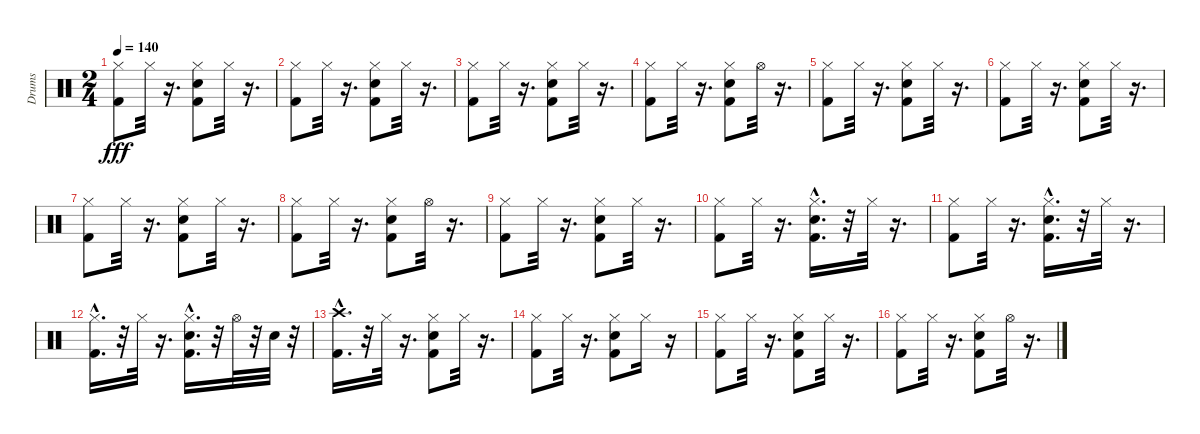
\track ("Drums" "Drums") {instrument percussion}
\staff {score}
\articulation defaults
\ts (2 4)
\tempo 140
\clef neutral
\ks c
("Kick (hit) 2" "Hi-Hat (closed)").8{dy fff} "Hi-Hat (closed)".32 r.16{d} ("Kick (hit) 2" "Hi-Hat (closed)" "Snare (hit) 2").8 "Hi-Hat (closed)".32 r.16{d} |
("Kick (hit) 2" "Hi-Hat (closed)").8 "Hi-Hat (closed)".32 r.16{d} ("Snare (hit) 2" "Kick (hit) 2" "Hi-Hat (closed)").8 "Hi-Hat (closed)".32 r.16{d} |
("Kick (hit) 2" "Hi-Hat (closed)").8 "Hi-Hat (closed)".32 r.16{d} ("Snare (hit) 2" "Kick (hit) 2" "Hi-Hat (closed)").8 "Hi-Hat (closed)".32 r.16{d} |
("Kick (hit) 2" "Hi-Hat (closed)").8 "Hi-Hat (closed)".32 r.16{d} ("Kick (hit) 2" "Hi-Hat (closed)" "Snare (hit) 2").8 "Hi-Hat (open)".32 r.16{d} |
("Kick (hit) 2" "Hi-Hat (closed)").8 "Hi-Hat (closed)".32 r.16{d} ("Snare (hit) 2" "Kick (hit) 2" "Hi-Hat (closed)").8 "Hi-Hat (closed)".32 r.16{d} |
("Kick (hit) 2" "Hi-Hat (closed)").8 "Hi-Hat (closed)".32 r.16{d} ("Snare (hit) 2" "Kick (hit) 2" "Hi-Hat (closed)").8 "Hi-Hat (closed)".32 r.16{d} |
("Kick (hit) 2" "Hi-Hat (closed)").8 "Hi-Hat (closed)".32 r.16{d} ("Kick (hit) 2" "Hi-Hat (closed)" "Snare (hit) 2").8 "Hi-Hat (closed)".32 r.16{d} |
("Kick (hit) 2" "Hi-Hat (closed)").8 "Hi-Hat (closed)".32 r.16{d} ("Snare (hit) 2" "Kick (hit) 2" "Hi-Hat (closed)").8 "Hi-Hat (open)".32 r.16{d} |
("Kick (hit) 2" "Hi-Hat (closed)").8 "Hi-Hat (closed)".32 r.16{d} ("Snare (hit) 2" "Kick (hit) 2" "Hi-Hat (closed)").8 "Hi-Hat (closed)".32 r.16{d} |
("Kick (hit) 2" "Hi-Hat (closed)").8 "Hi-Hat (closed)".32 r.16{d} ("Snare (hit) 2"{hac} "Kick (hit) 2"{hac} "Hi-Hat (closed)").16{d} r.32 "Hi-Hat (closed)".32 r.16{d} |
("Kick (hit) 2" "Hi-Hat (closed)").8 "Hi-Hat (closed)".32 r.16{d} ("Hi-Hat (closed)" "Snare (hit) 2"{hac} "Kick (hit) 2"{hac}).16{d} r.32 "Hi-Hat (closed)".32 r.16{d} |
("Kick (hit) 2"{hac} "Hi-Hat (closed)").16{d} r.32 "Hi-Hat (closed)".32 r.16{d} ("Snare (hit) 2"{hac} "Kick (hit) 2"{hac} "Hi-Hat (closed)").16{d} r.32 "Hi-Hat (open)".32 r.32 "Snare (hit) 2".32 r.32 |
("Crash high (hit)" "Kick (hit) 2"{hac}).16{d} r.32 "Hi-Hat (closed)".32 r.16{d} ("Kick (hit) 2" "Snare (hit) 2" "Hi-Hat (closed)").8 "Hi-Hat (closed)".32 r.16{d} |
("Kick (hit) 2" "Hi-Hat (closed)").8 "Hi-Hat (closed)".32 r.16{d} ("Kick (hit) 2" "Hi-Hat (closed)" "Snare (hit) 2").8 "Hi-Hat (closed)".16 r.16 |
("Kick (hit) 2" "Hi-Hat (closed)").8 "Hi-Hat (closed)".32 r.16{d} ("Hi-Hat (closed)" "Snare (hit) 2" "Kick (hit) 2").8 "Hi-Hat (closed)".32 r.16{d} |
("Kick (hit) 2" "Hi-Hat (closed)").8 "Hi-Hat (closed)".32 r.16{d} ("Snare (hit) 2" "Hi-Hat (closed)" "Kick (hit) 2").8 "Hi-Hat (open)".32 r.16{d}
